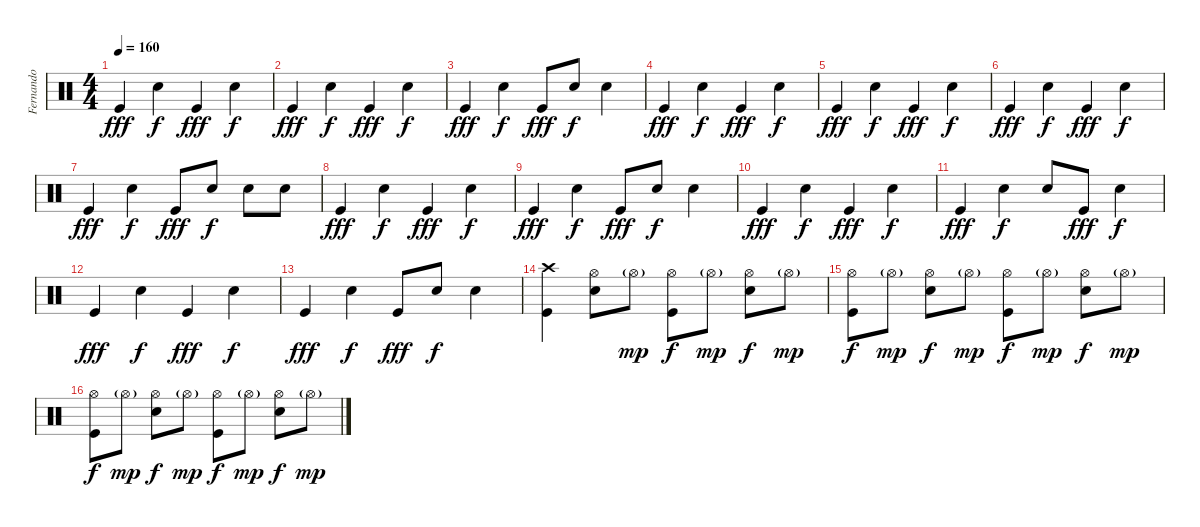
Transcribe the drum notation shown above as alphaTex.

\track ("Fernando" "Fernando") {instrument percussion}
\staff {score}
\articulation defaults
\ts (4 4)
\tempo 160
\clef neutral
\ks c "Kick (hit)".4{dy fff} "Snare (hit) 2".4{dy f} "Kick (hit)".4{dy fff} "Snare (hit) 2".4{dy f}
|
"Kick (hit)".4{dy fff} "Snare (hit) 2".4{dy f} "Kick (hit)".4{dy fff} "Snare (hit) 2".4{dy f} |
"Kick (hit)".4{dy fff} "Snare (hit) 2".4{dy f} "Kick (hit)".8{dy fff} "Snare (hit) 2".8{dy f} "Snare (hit) 2".4 |
"Kick (hit)".4{dy fff} "Snare (hit) 2".4{dy f} "Kick (hit)".4{dy fff} "Snare (hit) 2".4{dy f} |
"Kick (hit)".4{dy fff} "Snare (hit) 2".4{dy f} "Kick (hit)".4{dy fff} "Snare (hit) 2".4{dy f} |
"Kick (hit)".4{dy fff} "Snare (hit) 2".4{dy f} "Kick (hit)".4{dy fff} "Snare (hit) 2".4{dy f} |
"Kick (hit)".4{dy fff} "Snare (hit) 2".4{dy f} "Kick (hit)".8{dy fff} "Snare (hit) 2".8{dy f} "Snare (hit) 2".8 "Snare (hit) 2".8 |
"Kick (hit)".4{dy fff} "Snare (hit) 2".4{dy f} "Kick (hit)".4{dy fff} "Snare (hit) 2".4{dy f} |
"Kick (hit)".4{dy fff} "Snare (hit) 2".4{dy f} "Kick (hit)".8{dy fff} "Snare (hit) 2".8{dy f} "Snare (hit) 2".4 |
"Kick (hit)".4{dy fff} "Snare (hit) 2".4{dy f} "Kick (hit)".4{dy fff} "Snare (hit) 2".4{dy f} |
"Kick (hit)".4{dy fff} "Snare (hit) 2".4{dy f} "Snare (hit) 2".8 "Kick (hit)".8{dy fff} "Snare (hit) 2".4{dy f} |
"Kick (hit)".4{dy fff} "Snare (hit) 2".4{dy f} "Kick (hit)".4{dy fff} "Snare (hit) 2".4{dy f} |
"Kick (hit)".4{dy fff} "Snare (hit) 2".4{dy f} "Kick (hit)".8{dy fff} "Snare (hit) 2".8{dy f} "Snare (hit) 2".4 |
("Crash high (hit)" "Kick (hit)").4 ("Hi-Hat (open)" "Snare (hit) 2").8 "Hi-Hat (open)"{g}.8{dy mp} ("Hi-Hat (open)" "Kick (hit)").8{dy f} "Hi-Hat (open)"{g}.8{dy mp} ("Hi-Hat (open)" "Snare (hit) 2").8{dy f} "Hi-Hat (open)"{g}.8{dy mp} |
("Hi-Hat (open)" "Kick (hit)").8{dy f} "Hi-Hat (open)"{g}.8{dy mp} ("Hi-Hat (open)" "Snare (hit) 2").8{dy f} "Hi-Hat (open)"{g}.8{dy mp} ("Hi-Hat (open)" "Kick (hit)").8{dy f} "Hi-Hat (open)"{g}.8{dy mp} ("Hi-Hat (open)" "Snare (hit) 2").8{dy f} "Hi-Hat (open)"{g}.8{dy mp} |
("Hi-Hat (open)" "Kick (hit)").8{dy f} "Hi-Hat (open)"{g}.8{dy mp} ("Hi-Hat (open)" "Snare (hit) 2").8{dy f} "Hi-Hat (open)"{g}.8{dy mp} ("Hi-Hat (open)" "Kick (hit)").8{dy f} "Hi-Hat (open)"{g}.8{dy mp} ("Hi-Hat (open)" "Snare (hit) 2").8{dy f} "Hi-Hat (open)"{g}.8{dy mp}
